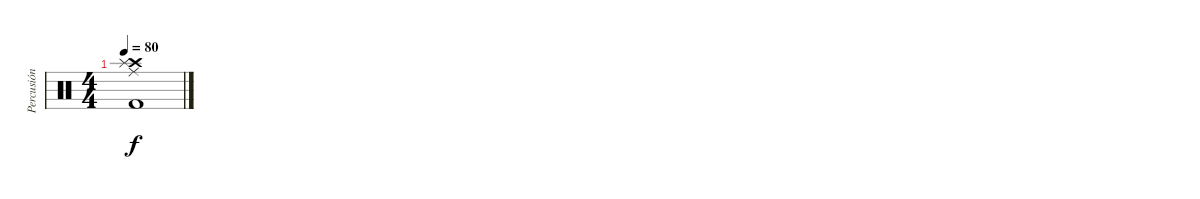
\track ("Percusión" "Percusión") {instrument percussion}
\staff {score}
\articulation defaults
\ts (4 4)
\tempo 80
\clef neutral
\ks c
("Crash high (hit)" "Kick (hit) 2" "Splash (hit)" "Ride (middle)").1{dy f}
